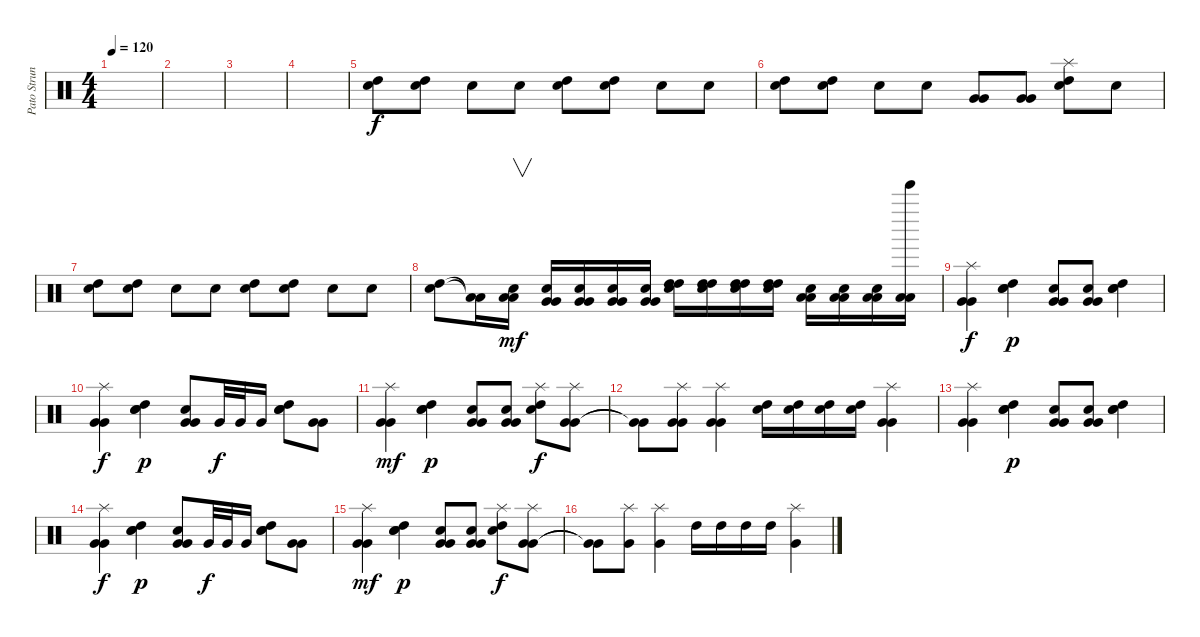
\track ("Pato Strunz" "Pato Strun") {instrument percussion}
\staff {score}
\articulation defaults
\ts (4 4)
\tempo 120
\clef neutral
\ks c
|
|
|
|
("High Tom (hit)" "Snare (hit) 2").8 ("High Tom (hit)" "Snare (hit) 2").8 "Snare (hit)".8 "Snare (hit)".8 ("High Tom (hit)" "Snare (hit) 2").8 ("High Tom (hit)" "Snare (hit) 2").8 "Snare (hit)".8 "Snare (hit)".8 |
("High Tom (hit)" "Snare (hit) 2").8 ("High Tom (hit)" "Snare (hit) 2").8 "Snare (hit)".8 "Snare (hit)".8 ("Very Low Tom (hit)" "Very Low Tom (hit)").8 ("Very Low Tom (hit)" "Very Low Tom (hit)").8 ("High Tom (hit)" "Snare (hit) 2" "Splash (hit)").8 "Snare (hit)".8 |
("High Tom (hit)" "Snare (hit) 2").8 ("High Tom (hit)" "Snare (hit) 2").8 "Snare (hit)".8 "Snare (hit)".8 ("High Tom (hit)" "Snare (hit) 2").8 ("High Tom (hit)" "Snare (hit) 2").8 "Snare (hit)".8 "Snare (hit)".8 |
("High Tom (hit)" "Snare (hit) 2").8 ("Low Tom (hit)"{t} "Low Tom (hit)"{t}).16 ("Low Tom (hit)" "Low Tom (hit)" "Snare (hit) 2").16{v dy mf} ("Very Low Tom (hit)" "Very Low Tom (hit)" "Snare (hit) 2").16 ("Very Low Tom (hit)" "Very Low Tom (hit)" "Snare (hit) 2").16 ("Very Low Tom (hit)" "Very Low Tom (hit)" "Snare (hit) 2").16 ("Very Low Tom (hit)" "Very Low Tom (hit)" "Snare (hit) 2").16 ("High Tom (hit)" "High Tom (hit)" "Snare (hit) 2").16 ("High Tom (hit)" "High Tom (hit)" "Snare (hit) 2").16 ("High Tom (hit)" "High Tom (hit)" "Snare (hit) 2").16 ("High Tom (hit)" "High Tom (hit)" "Snare (hit) 2").16 ("Low Tom (hit)" "Low Tom (hit)" "Snare (hit) 2").16 ("Low Tom (hit)" "Low Tom (hit)" "Snare (hit) 2").16 ("Low Tom (hit)" "Low Tom (hit)" "Snare (hit) 2").16 ("Low Tom (hit)" "Low Tom (hit)" "Tinkle Bell (hit)").16 |
("Very Low Tom (hit)" "Very Low Tom (hit)" "Splash (hit)").4{dy f volume 12} ("High Tom (hit)" "Snare (hit) 2" "Snare (hit) 2").4{dy p} ("Very Low Tom (hit)" "Very Low Tom (hit)" "Snare (hit) 2").8 ("Very Low Tom (hit)" "Very Low Tom (hit)" "Snare (hit) 2").8 ("High Tom (hit)" "Snare (hit) 2" "Snare (hit) 2").4 |
("Very Low Tom (hit)" "Very Low Tom (hit)" "Splash (hit)").4{dy f} ("High Tom (hit)" "Snare (hit) 2" "Snare (hit) 2").4{dy p} ("Very Low Tom (hit)" "Very Low Tom (hit)" "Snare (hit) 2").8 "Very Low Tom (hit)".32{dy f} "Very Low Tom (hit)".32 "Very Low Tom (hit)".16 ("High Tom (hit)" "Snare (hit) 2" "Snare (hit) 2").8 ("Very Low Tom (hit)" "Very Low Tom (hit)").8 |
("Very Low Tom (hit)" "Very Low Tom (hit)" "Splash (hit)").4{dy mf} ("High Tom (hit)" "Snare (hit) 2" "Snare (hit) 2").4{dy p} ("Very Low Tom (hit)" "Very Low Tom (hit)" "Snare (hit) 2").8 ("Very Low Tom (hit)" "Very Low Tom (hit)" "Snare (hit) 2").8 ("High Tom (hit)" "Snare (hit) 2" "Splash (hit)").8{dy f} ("Very Low Tom (hit)" "Very Low Tom (hit)" "Splash (hit)").8 |
("Very Low Tom (hit)"{t} "Very Low Tom (hit)"{t}).8 ("Very Low Tom (hit)" "Very Low Tom (hit)" "Splash (hit)").8 ("Very Low Tom (hit)" "Very Low Tom (hit)" "Splash (hit)").4 ("High Tom (hit)" "Snare (hit) 2").16 ("High Tom (hit)" "Snare (hit) 2").16 ("High Tom (hit)" "Snare (hit) 2").16 ("High Tom (hit)" "Snare (hit) 2").16 ("Very Low Tom (hit)" "Very Low Tom (hit)" "Splash (hit)").4 |
("Very Low Tom (hit)" "Very Low Tom (hit)" "Splash (hit)").4 ("High Tom (hit)" "Snare (hit) 2" "Snare (hit) 2").4{dy p} ("Very Low Tom (hit)" "Very Low Tom (hit)" "Snare (hit) 2").8 ("Very Low Tom (hit)" "Very Low Tom (hit)" "Snare (hit) 2").8 ("High Tom (hit)" "Snare (hit) 2" "Snare (hit) 2").4 |
("Very Low Tom (hit)" "Very Low Tom (hit)" "Splash (hit)").4{dy f} ("High Tom (hit)" "Snare (hit) 2" "Snare (hit) 2").4{dy p} ("Very Low Tom (hit)" "Very Low Tom (hit)" "Snare (hit) 2").8 "Very Low Tom (hit)".32{dy f} "Very Low Tom (hit)".32 "Very Low Tom (hit)".16 ("High Tom (hit)" "Snare (hit) 2" "Snare (hit) 2").8 ("Very Low Tom (hit)" "Very Low Tom (hit)").8 |
("Very Low Tom (hit)" "Very Low Tom (hit)" "Splash (hit)").4{dy mf} ("High Tom (hit)" "Snare (hit) 2" "Snare (hit) 2").4{dy p} ("Very Low Tom (hit)" "Very Low Tom (hit)" "Snare (hit) 2").8 ("Very Low Tom (hit)" "Very Low Tom (hit)" "Snare (hit) 2").8 ("High Tom (hit)" "Snare (hit) 2" "Splash (hit)").8{dy f} ("Very Low Tom (hit)" "Very Low Tom (hit)" "Splash (hit)").8 |
("Very Low Tom (hit)"{t} "Very Low Tom (hit)"{t}).8 ("Very Low Tom (hit)" "Splash (hit)").8 ("Very Low Tom (hit)" "Splash (hit)").4 "High Tom (hit)".16 "High Tom (hit)".16 "High Tom (hit)".16 "High Tom (hit)".16 ("Very Low Tom (hit)" "Splash (hit)").4
